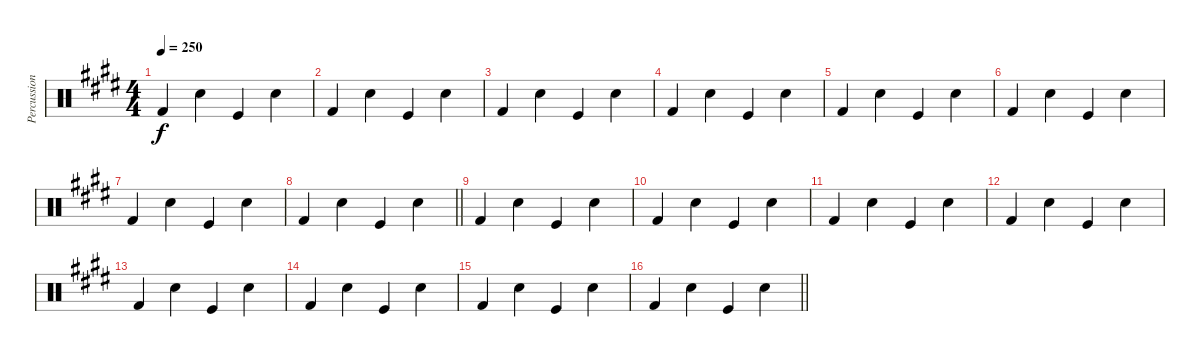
\track ("Percussion" "Percussion") {instrument percussion}
\staff {score}
\articulation defaults
\ts (4 4)
\tempo 250
\clef neutral
\ks e "Kick (hit) 2".4{dy f} "Snare (hit) 2".4 "Kick (hit)".4 "Snare (hit) 2".4
|
"Kick (hit) 2".4 "Snare (hit) 2".4 "Kick (hit)".4 "Snare (hit) 2".4 |
"Kick (hit) 2".4 "Snare (hit) 2".4 "Kick (hit)".4 "Snare (hit) 2".4 |
"Kick (hit) 2".4 "Snare (hit) 2".4 "Kick (hit)".4 "Snare (hit) 2".4 |
"Kick (hit) 2".4 "Snare (hit) 2".4 "Kick (hit)".4 "Snare (hit) 2".4 |
"Kick (hit) 2".4 "Snare (hit) 2".4 "Kick (hit)".4 "Snare (hit) 2".4 |
"Kick (hit) 2".4 "Snare (hit) 2".4 "Kick (hit)".4 "Snare (hit) 2".4 |
\barLineRight lightlight "Kick (hit) 2".4 "Snare (hit) 2".4 "Kick (hit)".4 "Snare (hit) 2".4
|
"Kick (hit) 2".4 "Snare (hit) 2".4 "Kick (hit)".4 "Snare (hit) 2".4 |
"Kick (hit) 2".4 "Snare (hit) 2".4 "Kick (hit)".4 "Snare (hit) 2".4 |
"Kick (hit) 2".4 "Snare (hit) 2".4 "Kick (hit)".4 "Snare (hit) 2".4 |
"Kick (hit) 2".4 "Snare (hit) 2".4 "Kick (hit)".4 "Snare (hit) 2".4 |
"Kick (hit) 2".4 "Snare (hit) 2".4 "Kick (hit)".4 "Snare (hit) 2".4 |
"Kick (hit) 2".4 "Snare (hit) 2".4 "Kick (hit)".4 "Snare (hit) 2".4 |
"Kick (hit) 2".4 "Snare (hit) 2".4 "Kick (hit)".4 "Snare (hit) 2".4 |
\barLineRight lightlight "Kick (hit) 2".4 "Snare (hit) 2".4 "Kick (hit)".4 "Snare (hit) 2".4
